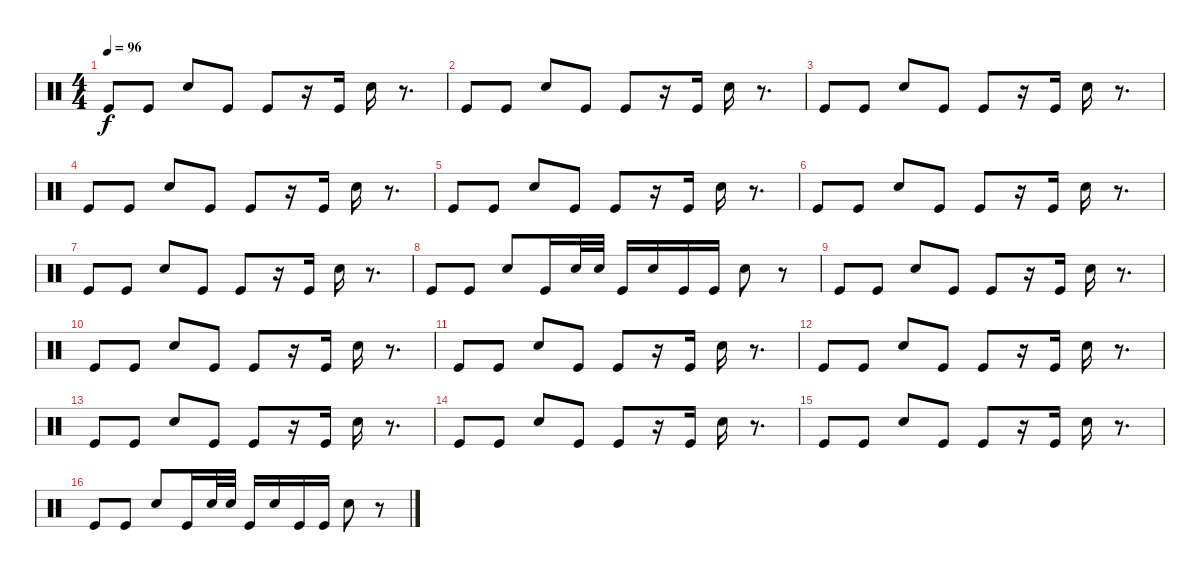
\track "" {instrument percussion}
\staff {score}
\articulation defaults
\ts (4 4)
\tempo 96
\clef neutral
\ks c "Kick (hit)".8{dy f} "Kick (hit)".8 "Snare (hit) 2".8 "Kick (hit)".8 "Kick (hit)".8
r.16 "Kick (hit)".16 "Snare (hit) 2".16 r.8{d} |
"Kick (hit)".8 "Kick (hit)".8 "Snare (hit) 2".8 "Kick (hit)".8 "Kick (hit)".8 r.16 "Kick (hit)".16 "Snare (hit) 2".16 r.8{d} |
"Kick (hit)".8 "Kick (hit)".8 "Snare (hit) 2".8 "Kick (hit)".8 "Kick (hit)".8 r.16 "Kick (hit)".16 "Snare (hit) 2".16 r.8{d} |
"Kick (hit)".8 "Kick (hit)".8 "Snare (hit) 2".8 "Kick (hit)".8 "Kick (hit)".8 r.16 "Kick (hit)".16 "Snare (hit) 2".16 r.8{d} |
"Kick (hit)".8 "Kick (hit)".8 "Snare (hit) 2".8 "Kick (hit)".8 "Kick (hit)".8 r.16 "Kick (hit)".16 "Snare (hit) 2".16 r.8{d} |
"Kick (hit)".8 "Kick (hit)".8 "Snare (hit) 2".8 "Kick (hit)".8 "Kick (hit)".8 r.16 "Kick (hit)".16 "Snare (hit) 2".16 r.8{d} |
"Kick (hit)".8 "Kick (hit)".8 "Snare (hit) 2".8 "Kick (hit)".8 "Kick (hit)".8 r.16 "Kick (hit)".16 "Snare (hit) 2".16 r.8{d} |
"Kick (hit)".8 "Kick (hit)".8 "Snare (hit) 2".8 "Kick (hit)".16 "Snare (hit) 2".32 "Snare (hit) 2".32 "Kick (hit)".16 "Snare (hit) 2".16 "Kick (hit)".16 "Kick (hit)".16 "Snare (hit) 2".8 r.8 |
"Kick (hit)".8 "Kick (hit)".8 "Snare (hit) 2".8 "Kick (hit)".8 "Kick (hit)".8 r.16 "Kick (hit)".16 "Snare (hit) 2".16 r.8{d} |
"Kick (hit)".8 "Kick (hit)".8 "Snare (hit) 2".8 "Kick (hit)".8 "Kick (hit)".8 r.16 "Kick (hit)".16 "Snare (hit) 2".16 r.8{d} |
"Kick (hit)".8 "Kick (hit)".8 "Snare (hit) 2".8 "Kick (hit)".8 "Kick (hit)".8 r.16 "Kick (hit)".16 "Snare (hit) 2".16 r.8{d} |
"Kick (hit)".8 "Kick (hit)".8 "Snare (hit) 2".8 "Kick (hit)".8 "Kick (hit)".8 r.16 "Kick (hit)".16 "Snare (hit) 2".16 r.8{d} |
"Kick (hit)".8 "Kick (hit)".8 "Snare (hit) 2".8 "Kick (hit)".8 "Kick (hit)".8 r.16 "Kick (hit)".16 "Snare (hit) 2".16 r.8{d} |
"Kick (hit)".8 "Kick (hit)".8 "Snare (hit) 2".8 "Kick (hit)".8 "Kick (hit)".8 r.16 "Kick (hit)".16 "Snare (hit) 2".16 r.8{d} |
"Kick (hit)".8 "Kick (hit)".8 "Snare (hit) 2".8 "Kick (hit)".8 "Kick (hit)".8 r.16 "Kick (hit)".16 "Snare (hit) 2".16 r.8{d} |
"Kick (hit)".8 "Kick (hit)".8 "Snare (hit) 2".8 "Kick (hit)".16 "Snare (hit) 2".32 "Snare (hit) 2".32 "Kick (hit)".16 "Snare (hit) 2".16 "Kick (hit)".16 "Kick (hit)".16 "Snare (hit) 2".8 r.8
